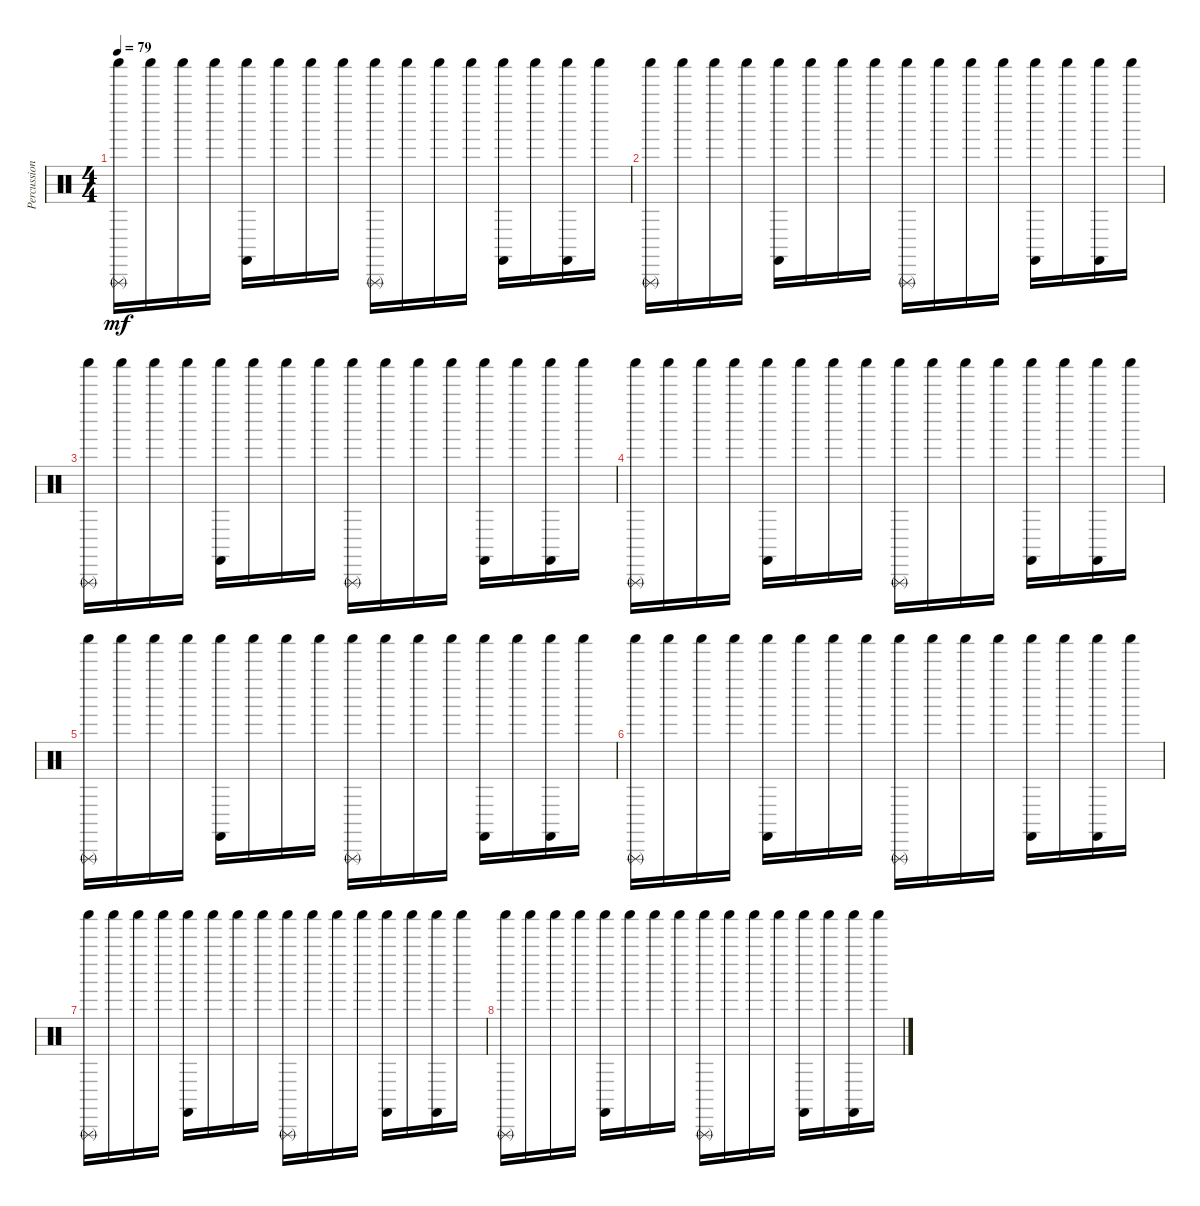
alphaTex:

\track ("Percussion" "Percussion") {instrument percussion}
\staff {score}
\articulation defaults
\ts (4 4)
\tempo 79
\clef neutral
\ks c
("Shaker (hit)" "Triangle (rnute)").16{dy mf} "Shaker (hit)".16 "Shaker (hit)".16 "Shaker (hit)".16 ("Shaker (hit)" "Castanets (hit)").16 "Shaker (hit)".16 "Shaker (hit)".16 "Shaker (hit)".16 ("Shaker (hit)" "Triangle (rnute)").16 "Shaker (hit)".16 "Shaker (hit)".16 "Shaker (hit)".16 ("Shaker (hit)" "Castanets (hit)").16 "Shaker (hit)".16 ("Shaker (hit)" "Castanets (hit)").16 "Shaker (hit)".16 |
("Shaker (hit)" "Triangle (rnute)").16 "Shaker (hit)".16 "Shaker (hit)".16 "Shaker (hit)".16 ("Shaker (hit)" "Castanets (hit)").16 "Shaker (hit)".16 "Shaker (hit)".16 "Shaker (hit)".16 ("Shaker (hit)" "Triangle (rnute)").16 "Shaker (hit)".16 "Shaker (hit)".16 "Shaker (hit)".16 ("Shaker (hit)" "Castanets (hit)").16 "Shaker (hit)".16 ("Shaker (hit)" "Castanets (hit)").16 "Shaker (hit)".16 |
("Shaker (hit)" "Triangle (rnute)").16 "Shaker (hit)".16 "Shaker (hit)".16 "Shaker (hit)".16 ("Shaker (hit)" "Castanets (hit)").16 "Shaker (hit)".16 "Shaker (hit)".16 "Shaker (hit)".16 ("Shaker (hit)" "Triangle (rnute)").16 "Shaker (hit)".16 "Shaker (hit)".16 "Shaker (hit)".16 ("Shaker (hit)" "Castanets (hit)").16 "Shaker (hit)".16 ("Shaker (hit)" "Castanets (hit)").16 "Shaker (hit)".16 |
("Shaker (hit)" "Triangle (rnute)").16 "Shaker (hit)".16 "Shaker (hit)".16 "Shaker (hit)".16 ("Shaker (hit)" "Castanets (hit)").16 "Shaker (hit)".16 "Shaker (hit)".16 "Shaker (hit)".16 ("Shaker (hit)" "Triangle (rnute)").16 "Shaker (hit)".16 "Shaker (hit)".16 "Shaker (hit)".16 ("Shaker (hit)" "Castanets (hit)").16 "Shaker (hit)".16 ("Shaker (hit)" "Castanets (hit)").16 "Shaker (hit)".16 |
("Shaker (hit)" "Triangle (rnute)").16 "Shaker (hit)".16 "Shaker (hit)".16 "Shaker (hit)".16 ("Shaker (hit)" "Castanets (hit)").16 "Shaker (hit)".16 "Shaker (hit)".16 "Shaker (hit)".16 ("Shaker (hit)" "Triangle (rnute)").16 "Shaker (hit)".16 "Shaker (hit)".16 "Shaker (hit)".16 ("Shaker (hit)" "Castanets (hit)").16 "Shaker (hit)".16 ("Shaker (hit)" "Castanets (hit)").16 "Shaker (hit)".16 |
("Shaker (hit)" "Triangle (rnute)").16 "Shaker (hit)".16 "Shaker (hit)".16 "Shaker (hit)".16 ("Shaker (hit)" "Castanets (hit)").16 "Shaker (hit)".16 "Shaker (hit)".16 "Shaker (hit)".16 ("Shaker (hit)" "Triangle (rnute)").16 "Shaker (hit)".16 "Shaker (hit)".16 "Shaker (hit)".16 ("Shaker (hit)" "Castanets (hit)").16 "Shaker (hit)".16 ("Shaker (hit)" "Castanets (hit)").16 "Shaker (hit)".16 |
("Shaker (hit)" "Triangle (rnute)").16 "Shaker (hit)".16 "Shaker (hit)".16 "Shaker (hit)".16 ("Shaker (hit)" "Castanets (hit)").16 "Shaker (hit)".16 "Shaker (hit)".16 "Shaker (hit)".16 ("Shaker (hit)" "Triangle (rnute)").16 "Shaker (hit)".16 "Shaker (hit)".16 "Shaker (hit)".16 ("Shaker (hit)" "Castanets (hit)").16 "Shaker (hit)".16 ("Shaker (hit)" "Castanets (hit)").16 "Shaker (hit)".16 |
("Shaker (hit)" "Triangle (rnute)").16 "Shaker (hit)".16 "Shaker (hit)".16 "Shaker (hit)".16 ("Shaker (hit)" "Castanets (hit)").16 "Shaker (hit)".16 "Shaker (hit)".16 "Shaker (hit)".16 ("Shaker (hit)" "Triangle (rnute)").16 "Shaker (hit)".16 "Shaker (hit)".16 "Shaker (hit)".16 ("Shaker (hit)" "Castanets (hit)").16 "Shaker (hit)".16 ("Shaker (hit)" "Castanets (hit)").16 "Shaker (hit)".16
